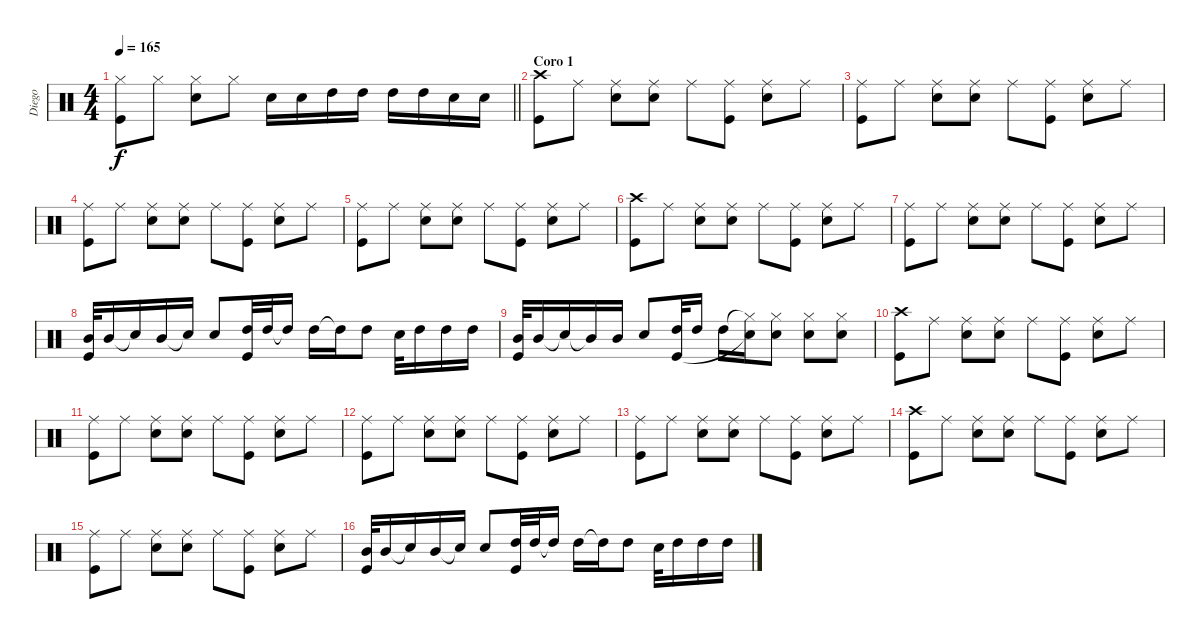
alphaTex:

\track ("Diego" "Diego") {instrument percussion}
\staff {score}
\articulation defaults
\ts (4 4)
\tempo 165
\clef neutral
\barLineRight lightlight
\ks c
("Hi-Hat (closed)" "Kick (hit)").8{dy f} "Hi-Hat (closed)".8 ("Hi-Hat (closed)" "Snare (hit) 2").8 "Hi-Hat (closed)".8 "Snare (hit) 2".16 "Snare (hit) 2".16 "High Tom (hit)".16 "High Tom (hit)".16 "High Tom (hit)".16 "High Tom (hit)".16 "Snare (hit) 2".16 "Snare (hit) 2".16 |
\section ("" "Coro 1")
("Crash high (hit)" "Kick (hit)").8 "Ride (middle)".8 ("Ride (middle)" "Snare (hit) 2").8 ("Ride (middle)" "Snare (hit) 2").8 "Ride (middle)".8 ("Ride (middle)" "Kick (hit)").8 ("Ride (middle)" "Snare (hit) 2").8 "Ride (middle)".8 |
("Ride (middle)" "Kick (hit)").8 "Ride (middle)".8 ("Ride (middle)" "Snare (hit) 2").8 ("Ride (middle)" "Snare (hit) 2").8 "Ride (middle)".8 ("Ride (middle)" "Kick (hit)").8 ("Ride (middle)" "Snare (hit) 2").8 "Ride (middle)".8 |
("Ride (middle)" "Kick (hit)").8 "Ride (middle)".8 ("Ride (middle)" "Snare (hit) 2").8 ("Ride (middle)" "Snare (hit) 2").8 "Ride (middle)".8 ("Ride (middle)" "Kick (hit)").8 ("Ride (middle)" "Snare (hit) 2").8 "Ride (middle)".8 |
("Ride (middle)" "Kick (hit)").8 "Ride (middle)".8 ("Ride (middle)" "Snare (hit) 2").8 ("Ride (middle)" "Snare (hit) 2").8 "Ride (middle)".8 ("Ride (middle)" "Kick (hit)").8 ("Ride (middle)" "Snare (hit) 2").8 "Ride (middle)".8 |
("Crash high (hit)" "Kick (hit)").8 "Ride (middle)".8 ("Ride (middle)" "Snare (hit) 2").8 ("Ride (middle)" "Snare (hit) 2").8 "Ride (middle)".8 ("Ride (middle)" "Kick (hit)").8 ("Ride (middle)" "Snare (hit) 2").8 "Ride (middle)".8 |
("Ride (middle)" "Kick (hit)").8 "Ride (middle)".8 ("Ride (middle)" "Snare (hit) 2").8 ("Ride (middle)" "Snare (hit) 2").8 "Ride (middle)".8 ("Ride (middle)" "Kick (hit)").8 ("Ride (middle)" "Snare (hit) 2").8 "Ride (middle)".8 |
("Mid Tom (hit)" "Kick (hit)").32 "Mid Tom (hit)".16 "Snare (hit)"{t}.16 "Mid Tom (hit)".16 "Snare (hit)"{t}.16 "Snare (hit) 2".8 ("High Tom (hit)" "Kick (hit)").32 "High Tom (hit)".32 "High Tom (hit)"{t}.16 "High Tom (hit)".16 "High Tom (hit)"{t}.16 "High Tom (hit)".8 "Snare (hit) 2".32 "High Tom (hit)".16 "High Tom (hit)".16 "High Tom (hit)".16 |
("Mid Tom (hit)" "Kick (hit)").32 "Mid Tom (hit)".16 "Snare (hit)"{t}.16 "Mid Tom (hit)"{t}.16 "Mid Tom (hit)".16 "Snare (hit) 2".8 ("High Tom (hit)" "Kick (hit)").32 "High Tom (hit)".16 "High Tom (hit)".16 ("Hi-Hat (closed)"{t} "Snare (hit) 2"{t}).16 ("Hi-Hat (closed)" "Snare (hit) 2").8 ("Hi-Hat (closed)" "Snare (hit) 2").8 ("Hi-Hat (closed)" "Snare (hit) 2").8 |
("Crash high (hit)" "Kick (hit)").8 "Ride (middle)".8 ("Ride (middle)" "Snare (hit) 2").8 ("Ride (middle)" "Snare (hit) 2").8 "Ride (middle)".8 ("Ride (middle)" "Kick (hit)").8 ("Ride (middle)" "Snare (hit) 2").8 "Ride (middle)".8 |
("Ride (middle)" "Kick (hit)").8 "Ride (middle)".8 ("Ride (middle)" "Snare (hit) 2").8 ("Ride (middle)" "Snare (hit) 2").8 "Ride (middle)".8 ("Ride (middle)" "Kick (hit)").8 ("Ride (middle)" "Snare (hit) 2").8 "Ride (middle)".8 |
("Ride (middle)" "Kick (hit)").8 "Ride (middle)".8 ("Ride (middle)" "Snare (hit) 2").8 ("Ride (middle)" "Snare (hit) 2").8 "Ride (middle)".8 ("Ride (middle)" "Kick (hit)").8 ("Ride (middle)" "Snare (hit) 2").8 "Ride (middle)".8 |
("Ride (middle)" "Kick (hit)").8 "Ride (middle)".8 ("Ride (middle)" "Snare (hit) 2").8 ("Ride (middle)" "Snare (hit) 2").8 "Ride (middle)".8 ("Ride (middle)" "Kick (hit)").8 ("Ride (middle)" "Snare (hit) 2").8 "Ride (middle)".8 |
("Crash high (hit)" "Kick (hit)").8 "Ride (middle)".8 ("Ride (middle)" "Snare (hit) 2").8 ("Ride (middle)" "Snare (hit) 2").8 "Ride (middle)".8 ("Ride (middle)" "Kick (hit)").8 ("Ride (middle)" "Snare (hit) 2").8 "Ride (middle)".8 |
("Ride (middle)" "Kick (hit)").8 "Ride (middle)".8 ("Ride (middle)" "Snare (hit) 2").8 ("Ride (middle)" "Snare (hit) 2").8 "Ride (middle)".8 ("Ride (middle)" "Kick (hit)").8 ("Ride (middle)" "Snare (hit) 2").8 "Ride (middle)".8 |
("Mid Tom (hit)" "Kick (hit)").32 "Mid Tom (hit)".16 "Snare (hit)"{t}.16 "Mid Tom (hit)".16 "Snare (hit)"{t}.16 "Snare (hit) 2".8 ("High Tom (hit)" "Kick (hit)").32 "High Tom (hit)".32 "High Tom (hit)"{t}.16 "High Tom (hit)".16 "High Tom (hit)"{t}.16 "High Tom (hit)".8 "Snare (hit) 2".32 "High Tom (hit)".16 "High Tom (hit)".16 "High Tom (hit)".16
